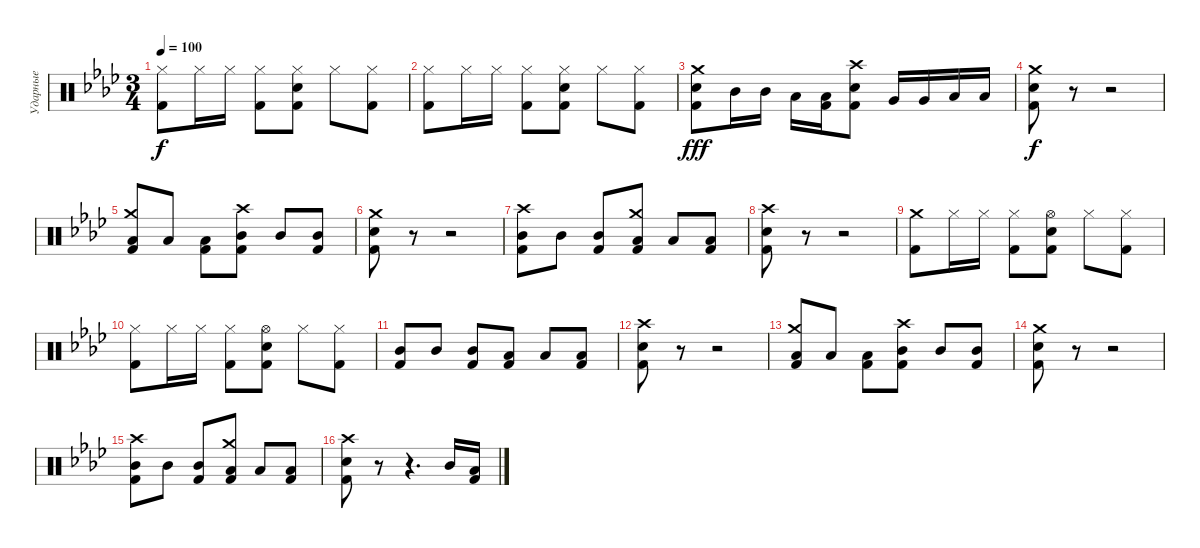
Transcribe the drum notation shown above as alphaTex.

\track ("Ударные" "Ударные") {instrument percussion}
\staff {score}
\articulation defaults
\ts (3 4)
\tempo 100
\clef neutral
\ks fminor
("Kick (hit) 2" "Hi-Hat (closed)").8{dy f} "Hi-Hat (closed)".16 "Hi-Hat (closed)".16 ("Kick (hit) 2" "Hi-Hat (closed)").8 ("Snare (hit) 2" "Kick (hit) 2" "Hi-Hat (closed)").8 "Hi-Hat (closed)".8 ("Kick (hit) 2" "Hi-Hat (closed)").8 |
("Kick (hit) 2" "Hi-Hat (closed)").8 "Hi-Hat (closed)".16 "Hi-Hat (closed)".16 ("Kick (hit) 2" "Hi-Hat (closed)").8 ("Snare (hit) 2" "Kick (hit) 2" "Hi-Hat (closed)").8 "Hi-Hat (closed)".8 ("Kick (hit) 2" "Hi-Hat (closed)").8 |
("Snare (hit) 2" "Kick (hit) 2" "Crash medium (hit)").8{dy fff} "Mid Tom (hit)".16 "Mid Tom (hit)".16 "Low Tom (hit)".16 ("Low Tom (hit)" "Kick (hit) 2").16 ("Snare (hit) 2" "Kick (hit) 2" "Crash high (hit)").8 "Very Low Tom (hit)".16 "Very Low Tom (hit)".16 "Low Floor Tom (hit)".16 "Low Floor Tom (hit)".16 |
("Snare (hit) 2" "Kick (hit) 2" "Crash medium (hit)").8{dy f} r.8 r.2 |
("Low Tom (hit)" "Kick (hit) 2" "Crash medium (hit)").8 "Low Tom (hit)".8 ("Low Tom (hit)" "Kick (hit) 2").8 ("Mid Tom (hit)" "Kick (hit) 2" "Crash high (hit)").8 "Mid Tom (hit)".8 ("Mid Tom (hit)" "Kick (hit) 2").8 |
("Snare (hit) 2" "Kick (hit) 2" "Crash medium (hit)").8 r.8 r.2 |
("Mid Tom (hit)" "Kick (hit) 2" "Crash high (hit)").8 "Mid Tom (hit)".8 ("Mid Tom (hit)" "Kick (hit) 2").8 ("Low Tom (hit)" "Kick (hit) 2" "Crash medium (hit)").8 "Low Tom (hit)".8 ("Low Tom (hit)" "Kick (hit) 2").8 |
("Snare (hit) 2" "Kick (hit) 2" "Crash high (hit)").8 r.8 r.2 |
("Kick (hit) 2" "Crash medium (hit)").8 "Hi-Hat (closed)".16 "Hi-Hat (closed)".16 ("Kick (hit) 2" "Hi-Hat (closed)").8 ("Snare (hit) 2" "Kick (hit) 2" "Hi-Hat (open)").8 "Hi-Hat (closed)".8 ("Kick (hit) 2" "Hi-Hat (closed)").8 |
("Kick (hit) 2" "Hi-Hat (closed)").8 "Hi-Hat (closed)".16 "Hi-Hat (closed)".16 ("Kick (hit) 2" "Hi-Hat (closed)").8 ("Snare (hit) 2" "Kick (hit) 2" "Hi-Hat (open)").8 "Hi-Hat (closed)".8 ("Kick (hit) 2" "Hi-Hat (closed)").8 |
("Mid Tom (hit)" "Kick (hit) 2").8 "Mid Tom (hit)".8 ("Mid Tom (hit)" "Kick (hit) 2").8 ("Low Tom (hit)" "Kick (hit) 2").8 "Low Tom (hit)".8 ("Low Tom (hit)" "Kick (hit) 2").8 |
("Snare (hit) 2" "Kick (hit) 2" "Crash high (hit)").8 r.8 r.2 |
("Low Tom (hit)" "Kick (hit) 2" "Crash medium (hit)").8 "Low Tom (hit)".8 ("Low Tom (hit)" "Kick (hit) 2").8 ("Mid Tom (hit)" "Kick (hit) 2" "Crash high (hit)").8 "Mid Tom (hit)".8 ("Mid Tom (hit)" "Kick (hit) 2").8 |
("Snare (hit) 2" "Kick (hit) 2" "Crash medium (hit)").8 r.8 r.2 |
("Mid Tom (hit)" "Kick (hit) 2" "Crash high (hit)").8 "Mid Tom (hit)".8 ("Mid Tom (hit)" "Kick (hit) 2").8 ("Low Tom (hit)" "Kick (hit) 2" "Crash medium (hit)").8 "Low Tom (hit)".8 ("Low Tom (hit)" "Kick (hit) 2").8 |
("Snare (hit) 2" "Kick (hit) 2" "Crash high (hit)").8 r.8 r.4{d} "Mid Tom (hit)".16 ("Low Tom (hit)" "Kick (hit) 2").16
